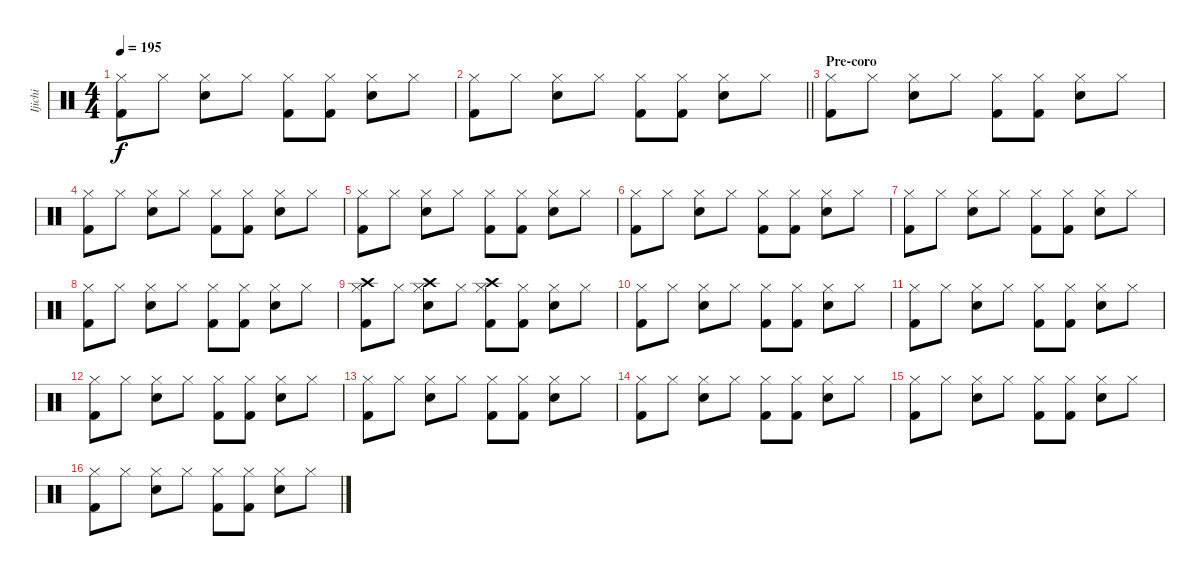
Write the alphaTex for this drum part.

\track ("Ijichi" "Ijichi") {instrument percussion}
\staff {score}
\articulation defaults
\ts (4 4)
\tempo 195
\clef neutral
\ks c
("Hi-Hat (closed)" "Kick (hit) 2").8{dy f} "Hi-Hat (closed)".8 ("Hi-Hat (closed)" "Snare (hit) 2").8 "Hi-Hat (closed)".8 ("Hi-Hat (closed)" "Kick (hit) 2").8 ("Hi-Hat (closed)" "Kick (hit) 2").8 ("Hi-Hat (closed)" "Snare (hit) 2").8 "Hi-Hat (closed)".8 |
\barLineRight lightlight
("Hi-Hat (closed)" "Kick (hit) 2").8 "Hi-Hat (closed)".8 ("Hi-Hat (closed)" "Snare (hit) 2").8 "Hi-Hat (closed)".8 ("Hi-Hat (closed)" "Kick (hit) 2").8 ("Hi-Hat (closed)" "Kick (hit) 2").8 ("Hi-Hat (closed)" "Snare (hit) 2").8 "Hi-Hat (closed)".8 |
\section ("" "Pre-coro")
("Hi-Hat (closed)" "Kick (hit) 2").8 "Hi-Hat (closed)".8 ("Hi-Hat (closed)" "Snare (hit) 2").8 "Hi-Hat (closed)".8 ("Hi-Hat (closed)" "Kick (hit) 2").8 ("Hi-Hat (closed)" "Kick (hit) 2").8 ("Hi-Hat (closed)" "Snare (hit) 2").8 "Hi-Hat (closed)".8 |
("Hi-Hat (closed)" "Kick (hit) 2").8 "Hi-Hat (closed)".8 ("Hi-Hat (closed)" "Snare (hit) 2").8 "Hi-Hat (closed)".8 ("Hi-Hat (closed)" "Kick (hit) 2").8 ("Hi-Hat (closed)" "Kick (hit) 2").8 ("Hi-Hat (closed)" "Snare (hit) 2").8 "Hi-Hat (closed)".8 |
("Hi-Hat (closed)" "Kick (hit) 2").8 "Hi-Hat (closed)".8 ("Hi-Hat (closed)" "Snare (hit) 2").8 "Hi-Hat (closed)".8 ("Hi-Hat (closed)" "Kick (hit) 2").8 ("Hi-Hat (closed)" "Kick (hit) 2").8 ("Hi-Hat (closed)" "Snare (hit) 2").8 "Hi-Hat (closed)".8 |
("Hi-Hat (closed)" "Kick (hit) 2").8 "Hi-Hat (closed)".8 ("Hi-Hat (closed)" "Snare (hit) 2").8 "Hi-Hat (closed)".8 ("Hi-Hat (closed)" "Kick (hit) 2").8 ("Hi-Hat (closed)" "Kick (hit) 2").8 ("Hi-Hat (closed)" "Snare (hit) 2").8 "Hi-Hat (closed)".8 |
("Hi-Hat (closed)" "Kick (hit) 2").8 "Hi-Hat (closed)".8 ("Hi-Hat (closed)" "Snare (hit) 2").8 "Hi-Hat (closed)".8 ("Hi-Hat (closed)" "Kick (hit) 2").8 ("Hi-Hat (closed)" "Kick (hit) 2").8 ("Hi-Hat (closed)" "Snare (hit) 2").8 "Hi-Hat (closed)".8 |
("Hi-Hat (closed)" "Kick (hit) 2").8 "Hi-Hat (closed)".8 ("Hi-Hat (closed)" "Snare (hit) 2").8 "Hi-Hat (closed)".8 ("Hi-Hat (closed)" "Kick (hit) 2").8 ("Hi-Hat (closed)" "Kick (hit) 2").8 ("Hi-Hat (closed)" "Snare (hit) 2").8 "Hi-Hat (closed)".8 |
("Hi-Hat (closed)" "Kick (hit) 2" "Crash high (hit)").8 "Hi-Hat (closed)".8 ("Hi-Hat (closed)" "Snare (hit) 2" "Crash high (hit)").8 "Hi-Hat (closed)".8 ("Hi-Hat (closed)" "Kick (hit) 2" "Crash high (hit)").8 ("Hi-Hat (closed)" "Kick (hit) 2").8 ("Hi-Hat (closed)" "Snare (hit) 2").8 "Hi-Hat (closed)".8 |
("Hi-Hat (closed)" "Kick (hit) 2").8 "Hi-Hat (closed)".8 ("Hi-Hat (closed)" "Snare (hit) 2").8 "Hi-Hat (closed)".8 ("Hi-Hat (closed)" "Kick (hit) 2").8 ("Hi-Hat (closed)" "Kick (hit) 2").8 ("Hi-Hat (closed)" "Snare (hit) 2").8 "Hi-Hat (closed)".8 |
("Hi-Hat (closed)" "Kick (hit) 2").8 "Hi-Hat (closed)".8 ("Hi-Hat (closed)" "Snare (hit) 2").8 "Hi-Hat (closed)".8 ("Hi-Hat (closed)" "Kick (hit) 2").8 ("Hi-Hat (closed)" "Kick (hit) 2").8 ("Hi-Hat (closed)" "Snare (hit) 2").8 "Hi-Hat (closed)".8 |
("Hi-Hat (closed)" "Kick (hit) 2").8 "Hi-Hat (closed)".8 ("Hi-Hat (closed)" "Snare (hit) 2").8 "Hi-Hat (closed)".8 ("Hi-Hat (closed)" "Kick (hit) 2").8 ("Hi-Hat (closed)" "Kick (hit) 2").8 ("Hi-Hat (closed)" "Snare (hit) 2").8 "Hi-Hat (closed)".8 |
("Hi-Hat (closed)" "Kick (hit) 2").8 "Hi-Hat (closed)".8 ("Hi-Hat (closed)" "Snare (hit) 2").8 "Hi-Hat (closed)".8 ("Hi-Hat (closed)" "Kick (hit) 2").8 ("Hi-Hat (closed)" "Kick (hit) 2").8 ("Hi-Hat (closed)" "Snare (hit) 2").8 "Hi-Hat (closed)".8 |
("Hi-Hat (closed)" "Kick (hit) 2").8 "Hi-Hat (closed)".8 ("Hi-Hat (closed)" "Snare (hit) 2").8 "Hi-Hat (closed)".8 ("Hi-Hat (closed)" "Kick (hit) 2").8 ("Hi-Hat (closed)" "Kick (hit) 2").8 ("Hi-Hat (closed)" "Snare (hit) 2").8 "Hi-Hat (closed)".8 |
("Hi-Hat (closed)" "Kick (hit) 2").8 "Hi-Hat (closed)".8 ("Hi-Hat (closed)" "Snare (hit) 2").8 "Hi-Hat (closed)".8 ("Hi-Hat (closed)" "Kick (hit) 2").8 ("Hi-Hat (closed)" "Kick (hit) 2").8 ("Hi-Hat (closed)" "Snare (hit) 2").8 "Hi-Hat (closed)".8 |
("Hi-Hat (closed)" "Kick (hit) 2").8 "Hi-Hat (closed)".8 ("Hi-Hat (closed)" "Snare (hit) 2").8 "Hi-Hat (closed)".8 ("Hi-Hat (closed)" "Kick (hit) 2").8 ("Hi-Hat (closed)" "Kick (hit) 2").8 ("Hi-Hat (closed)" "Snare (hit) 2").8 "Hi-Hat (closed)".8
